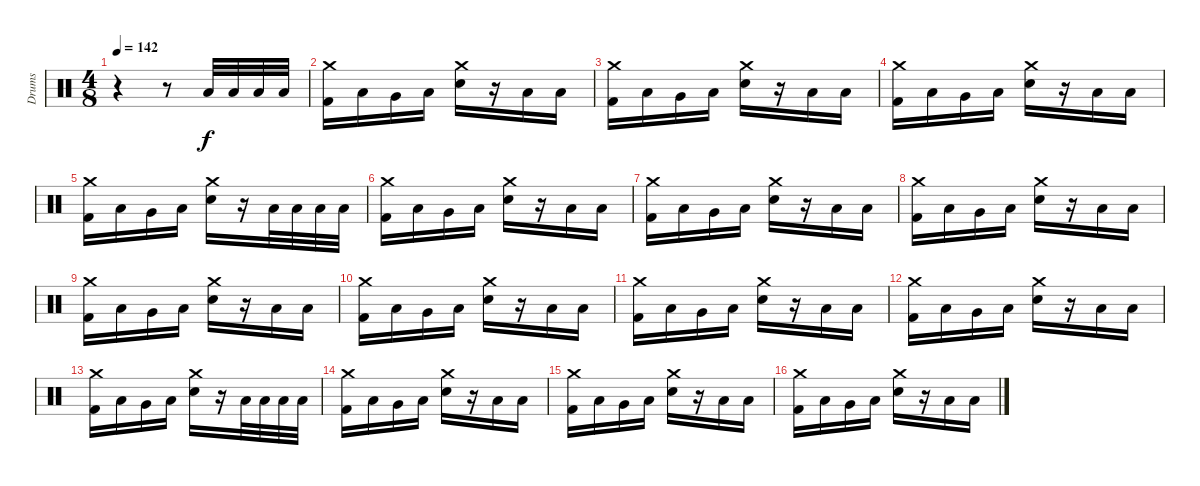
\track ("Drums" "Drums") {instrument percussion}
\staff {score}
\articulation defaults
\ts (4 8)
\tempo 142
\clef neutral
\ks c
r.4{dy f} r.8 "Low Tom (hit)".32 "Low Tom (hit)".32 "Low Tom (hit)".32 "Low Tom (hit)".32 |
("Kick (hit) 2" "Crash medium (hit)").16 "Low Tom (hit)".16 "Very Low Tom (hit)".16 "Low Floor Tom (hit)".16 ("Electric Snare (hit)" "Crash medium (hit)").16 r.16 "Low Floor Tom (hit)".16 "Low Tom (hit)".16 |
("Kick (hit) 2" "Crash medium (hit)").16 "Low Tom (hit)".16 "Very Low Tom (hit)".16 "Low Floor Tom (hit)".16 ("Electric Snare (hit)" "Crash medium (hit)").16 r.16 "Low Floor Tom (hit)".16 "Low Tom (hit)".16 |
("Kick (hit) 2" "Crash medium (hit)").16 "Low Tom (hit)".16 "Very Low Tom (hit)".16 "Low Floor Tom (hit)".16 ("Electric Snare (hit)" "Crash medium (hit)").16 r.16 "Low Floor Tom (hit)".16 "Low Tom (hit)".16 |
("Kick (hit) 2" "Crash medium (hit)").16 "Low Tom (hit)".16 "Very Low Tom (hit)".16 "Low Floor Tom (hit)".16 ("Electric Snare (hit)" "Crash medium (hit)").16 r.16 "Low Tom (hit)".32 "Low Tom (hit)".32 "Low Tom (hit)".32 "Low Tom (hit)".32 |
("Kick (hit) 2" "Crash medium (hit)").16 "Low Tom (hit)".16 "Very Low Tom (hit)".16 "Low Floor Tom (hit)".16 ("Electric Snare (hit)" "Crash medium (hit)").16 r.16 "Low Floor Tom (hit)".16 "Low Tom (hit)".16 |
("Kick (hit) 2" "Crash medium (hit)").16 "Low Tom (hit)".16 "Very Low Tom (hit)".16 "Low Floor Tom (hit)".16 ("Electric Snare (hit)" "Crash medium (hit)").16 r.16 "Low Floor Tom (hit)".16 "Low Tom (hit)".16 |
("Kick (hit) 2" "Crash medium (hit)").16 "Low Tom (hit)".16 "Very Low Tom (hit)".16 "Low Floor Tom (hit)".16 ("Electric Snare (hit)" "Crash medium (hit)").16 r.16 "Low Floor Tom (hit)".16 "Low Tom (hit)".16 |
("Kick (hit) 2" "Crash medium (hit)").16 "Low Tom (hit)".16 "Very Low Tom (hit)".16 "Low Floor Tom (hit)".16 ("Electric Snare (hit)" "Crash medium (hit)").16 r.16 "Low Floor Tom (hit)".16 "Low Tom (hit)".16 |
("Kick (hit) 2" "Crash medium (hit)").16 "Low Tom (hit)".16 "Very Low Tom (hit)".16 "Low Floor Tom (hit)".16 ("Electric Snare (hit)" "Crash medium (hit)").16 r.16 "Low Floor Tom (hit)".16 "Low Tom (hit)".16 |
("Kick (hit) 2" "Crash medium (hit)").16 "Low Tom (hit)".16 "Very Low Tom (hit)".16 "Low Floor Tom (hit)".16 ("Electric Snare (hit)" "Crash medium (hit)").16 r.16 "Low Floor Tom (hit)".16 "Low Tom (hit)".16 |
("Kick (hit) 2" "Crash medium (hit)").16 "Low Tom (hit)".16 "Very Low Tom (hit)".16 "Low Floor Tom (hit)".16 ("Electric Snare (hit)" "Crash medium (hit)").16 r.16 "Low Floor Tom (hit)".16 "Low Tom (hit)".16 |
("Kick (hit) 2" "Crash medium (hit)").16 "Low Tom (hit)".16 "Very Low Tom (hit)".16 "Low Floor Tom (hit)".16 ("Electric Snare (hit)" "Crash medium (hit)").16 r.16 "Low Tom (hit)".32 "Low Tom (hit)".32 "Low Tom (hit)".32 "Low Tom (hit)".32 |
("Kick (hit) 2" "Crash medium (hit)").16 "Low Tom (hit)".16 "Very Low Tom (hit)".16 "Low Floor Tom (hit)".16 ("Electric Snare (hit)" "Crash medium (hit)").16 r.16 "Low Floor Tom (hit)".16 "Low Tom (hit)".16 |
("Kick (hit) 2" "Crash medium (hit)").16 "Low Tom (hit)".16 "Very Low Tom (hit)".16 "Low Floor Tom (hit)".16 ("Electric Snare (hit)" "Crash medium (hit)").16 r.16 "Low Floor Tom (hit)".16 "Low Tom (hit)".16 |
("Kick (hit) 2" "Crash medium (hit)").16 "Low Tom (hit)".16 "Very Low Tom (hit)".16 "Low Floor Tom (hit)".16 ("Electric Snare (hit)" "Crash medium (hit)").16 r.16 "Low Floor Tom (hit)".16 "Low Tom (hit)".16
